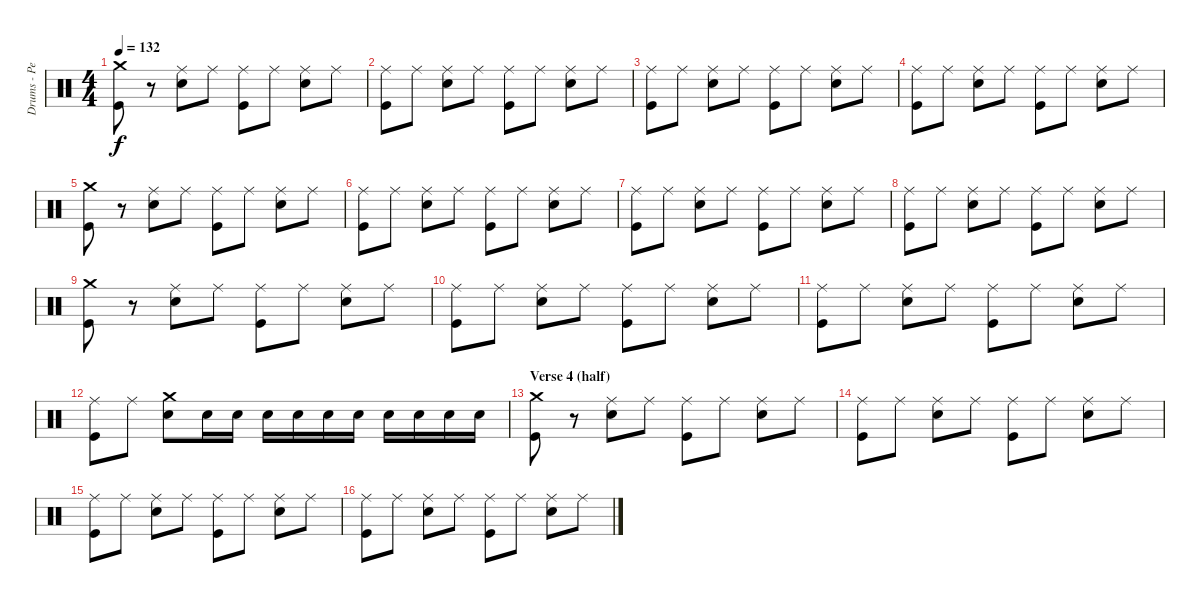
\track ("Drums - Pete Gill" "Drums - Pe") {instrument percussion}
\staff {score}
\articulation defaults
\ts (4 4)
\tempo 132
\clef neutral
\ks c
("Crash medium (hit)" "Kick (hit)").8{dy f} r.8 ("Ride (middle)" "Snare (hit) 2").8 "Ride (middle)".8 ("Ride (middle)" "Kick (hit)").8 "Ride (middle)".8 ("Ride (middle)" "Snare (hit) 2").8 "Ride (middle)".8 |
("Ride (middle)" "Kick (hit)").8 "Ride (middle)".8 ("Ride (middle)" "Snare (hit) 2").8 "Ride (middle)".8 ("Ride (middle)" "Kick (hit)").8 "Ride (middle)".8 ("Ride (middle)" "Snare (hit) 2").8 "Ride (middle)".8 |
("Ride (middle)" "Kick (hit)").8 "Ride (middle)".8 ("Ride (middle)" "Snare (hit) 2").8 "Ride (middle)".8 ("Ride (middle)" "Kick (hit)").8 "Ride (middle)".8 ("Ride (middle)" "Snare (hit) 2").8 "Ride (middle)".8 |
("Ride (middle)" "Kick (hit)").8 "Ride (middle)".8 ("Ride (middle)" "Snare (hit) 2").8 "Ride (middle)".8 ("Ride (middle)" "Kick (hit)").8 "Ride (middle)".8 ("Ride (middle)" "Snare (hit) 2").8 "Ride (middle)".8 |
("Crash medium (hit)" "Kick (hit)").8 r.8 ("Ride (middle)" "Snare (hit) 2").8 "Ride (middle)".8 ("Ride (middle)" "Kick (hit)").8 "Ride (middle)".8 ("Ride (middle)" "Snare (hit) 2").8 "Ride (middle)".8 |
("Ride (middle)" "Kick (hit)").8 "Ride (middle)".8 ("Ride (middle)" "Snare (hit) 2").8 "Ride (middle)".8 ("Ride (middle)" "Kick (hit)").8 "Ride (middle)".8 ("Ride (middle)" "Snare (hit) 2").8 "Ride (middle)".8 |
("Ride (middle)" "Kick (hit)").8 "Ride (middle)".8 ("Ride (middle)" "Snare (hit) 2").8 "Ride (middle)".8 ("Ride (middle)" "Kick (hit)").8 "Ride (middle)".8 ("Ride (middle)" "Snare (hit) 2").8 "Ride (middle)".8 |
("Ride (middle)" "Kick (hit)").8 "Ride (middle)".8 ("Ride (middle)" "Snare (hit) 2").8 "Ride (middle)".8 ("Ride (middle)" "Kick (hit)").8 "Ride (middle)".8 ("Ride (middle)" "Snare (hit) 2").8 "Ride (middle)".8 |
("Crash medium (hit)" "Kick (hit)").8 r.8 ("Ride (middle)" "Snare (hit) 2").8 "Ride (middle)".8 ("Ride (middle)" "Kick (hit)").8 "Ride (middle)".8 ("Ride (middle)" "Snare (hit) 2").8 "Ride (middle)".8 |
("Ride (middle)" "Kick (hit)").8 "Ride (middle)".8 ("Ride (middle)" "Snare (hit) 2").8 "Ride (middle)".8 ("Ride (middle)" "Kick (hit)").8 "Ride (middle)".8 ("Ride (middle)" "Snare (hit) 2").8 "Ride (middle)".8 |
("Ride (middle)" "Kick (hit)").8 "Ride (middle)".8 ("Ride (middle)" "Snare (hit) 2").8 "Ride (middle)".8 ("Ride (middle)" "Kick (hit)").8 "Ride (middle)".8 ("Ride (middle)" "Snare (hit) 2").8 "Ride (middle)".8 |
("Ride (middle)" "Kick (hit)").8 "Ride (middle)".8 ("Crash medium (hit)" "Snare (hit) 2").8 "Snare (hit) 2".16 "Snare (hit) 2".16 "Snare (hit) 2".16 "Snare (hit) 2".16 "Snare (hit) 2".16 "Snare (hit) 2".16 "Snare (hit) 2".16 "Snare (hit) 2".16 "Snare (hit) 2".16 "Snare (hit) 2".16 |
\section ("" "Verse 4 (half)")
("Crash medium (hit)" "Kick (hit)").8 r.8 ("Ride (middle)" "Snare (hit) 2").8 "Ride (middle)".8 ("Ride (middle)" "Kick (hit)").8 "Ride (middle)".8 ("Ride (middle)" "Snare (hit) 2").8 "Ride (middle)".8 |
("Ride (middle)" "Kick (hit)").8 "Ride (middle)".8 ("Ride (middle)" "Snare (hit) 2").8 "Ride (middle)".8 ("Ride (middle)" "Kick (hit)").8 "Ride (middle)".8 ("Ride (middle)" "Snare (hit) 2").8 "Ride (middle)".8 |
("Ride (middle)" "Kick (hit)").8 "Ride (middle)".8 ("Ride (middle)" "Snare (hit) 2").8 "Ride (middle)".8 ("Ride (middle)" "Kick (hit)").8 "Ride (middle)".8 ("Ride (middle)" "Snare (hit) 2").8 "Ride (middle)".8 |
("Ride (middle)" "Kick (hit)").8 "Ride (middle)".8 ("Ride (middle)" "Snare (hit) 2").8 "Ride (middle)".8 ("Ride (middle)" "Kick (hit)").8 "Ride (middle)".8 ("Ride (middle)" "Snare (hit) 2").8 "Ride (middle)".8
